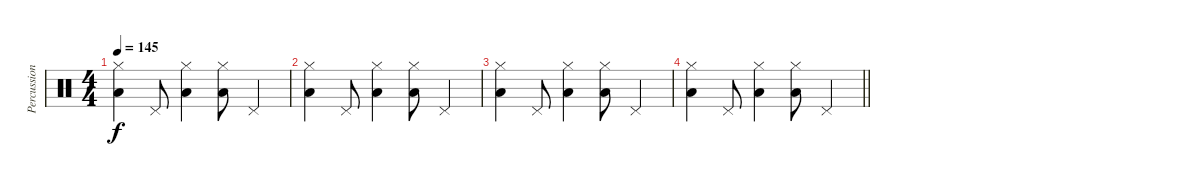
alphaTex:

\track ("Percussion" "Percussion") {instrument percussion}
\staff {score}
\articulation defaults
\ts (4 4)
\tempo 145
\clef neutral
\ks c
("Hi-Hat (closed)" "Low Floor Tom (hit)").4{dy f} "Pedal Hi-Hat (hit)".8 ("Hi-Hat (closed)" "Low Floor Tom (hit)").4 ("Hi-Hat (closed)" "Low Floor Tom (hit)").8 "Pedal Hi-Hat (hit)".4 |
("Hi-Hat (closed)" "Low Floor Tom (hit)").4 "Pedal Hi-Hat (hit)".8 ("Hi-Hat (closed)" "Low Floor Tom (hit)").4 ("Hi-Hat (closed)" "Low Floor Tom (hit)").8 "Pedal Hi-Hat (hit)".4 |
("Hi-Hat (closed)" "Low Floor Tom (hit)").4 "Pedal Hi-Hat (hit)".8 ("Hi-Hat (closed)" "Low Floor Tom (hit)").4 ("Hi-Hat (closed)" "Low Floor Tom (hit)").8 "Pedal Hi-Hat (hit)".4 |
\barLineRight lightlight
("Hi-Hat (closed)" "Low Floor Tom (hit)").4 "Pedal Hi-Hat (hit)".8 ("Hi-Hat (closed)" "Low Floor Tom (hit)").4 ("Hi-Hat (closed)" "Low Floor Tom (hit)").8 "Pedal Hi-Hat (hit)".4
